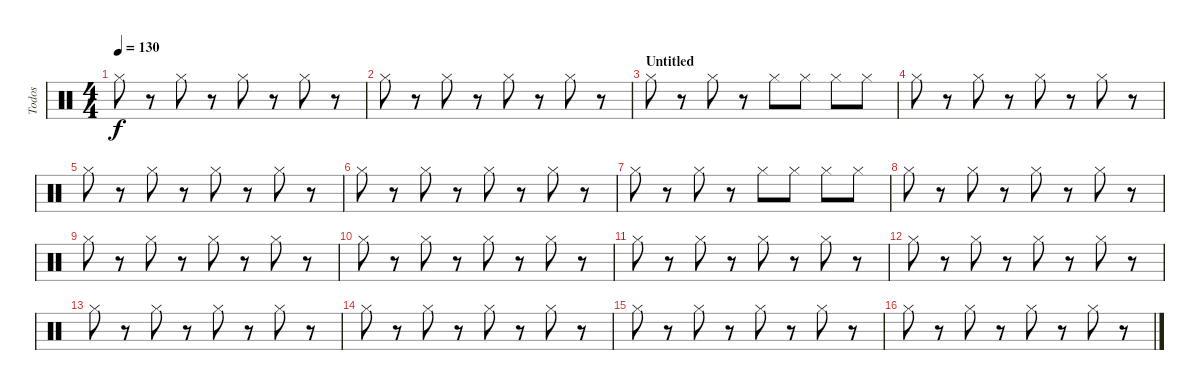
\track ("Todos" "Todos") {instrument percussion}
\staff {score}
\articulation defaults
\ts (4 4)
\tempo 130
\clef neutral
\ks c "Hi-Hat (closed)".8{dy f}
r.8 "Hi-Hat (closed)".8 r.8 "Hi-Hat (closed)".8 r.8 "Hi-Hat (closed)".8 r.8 |
"Hi-Hat (closed)".8 r.8 "Hi-Hat (closed)".8 r.8 "Hi-Hat (closed)".8 r.8 "Hi-Hat (closed)".8 r.8 |
\section ("" "Untitled")
"Hi-Hat (closed)".8 r.8 "Hi-Hat (closed)".8 r.8 "Hi-Hat (closed)".8 "Hi-Hat (closed)".8 "Hi-Hat (closed)".8 "Hi-Hat (closed)".8 |
"Hi-Hat (closed)".8 r.8 "Hi-Hat (closed)".8 r.8 "Hi-Hat (closed)".8 r.8 "Hi-Hat (closed)".8 r.8 |
"Hi-Hat (closed)".8 r.8 "Hi-Hat (closed)".8 r.8 "Hi-Hat (closed)".8 r.8 "Hi-Hat (closed)".8 r.8 |
"Hi-Hat (closed)".8 r.8 "Hi-Hat (closed)".8 r.8 "Hi-Hat (closed)".8 r.8 "Hi-Hat (closed)".8 r.8 |
"Hi-Hat (closed)".8 r.8 "Hi-Hat (closed)".8 r.8 "Hi-Hat (closed)".8 "Hi-Hat (closed)".8 "Hi-Hat (closed)".8 "Hi-Hat (closed)".8 |
"Hi-Hat (closed)".8 r.8 "Hi-Hat (closed)".8 r.8 "Hi-Hat (closed)".8 r.8 "Hi-Hat (closed)".8 r.8 |
"Hi-Hat (closed)".8 r.8 "Hi-Hat (closed)".8 r.8 "Hi-Hat (closed)".8 r.8 "Hi-Hat (closed)".8 r.8 |
"Hi-Hat (closed)".8 r.8 "Hi-Hat (closed)".8 r.8 "Hi-Hat (closed)".8 r.8 "Hi-Hat (closed)".8 r.8 |
"Hi-Hat (closed)".8 r.8 "Hi-Hat (closed)".8 r.8 "Hi-Hat (closed)".8 r.8 "Hi-Hat (closed)".8 r.8 |
"Hi-Hat (closed)".8 r.8 "Hi-Hat (closed)".8 r.8 "Hi-Hat (closed)".8 r.8 "Hi-Hat (closed)".8 r.8 |
"Hi-Hat (closed)".8 r.8 "Hi-Hat (closed)".8 r.8 "Hi-Hat (closed)".8 r.8 "Hi-Hat (closed)".8 r.8 |
"Hi-Hat (closed)".8 r.8 "Hi-Hat (closed)".8 r.8 "Hi-Hat (closed)".8 r.8 "Hi-Hat (closed)".8 r.8 |
"Hi-Hat (closed)".8 r.8 "Hi-Hat (closed)".8 r.8 "Hi-Hat (closed)".8 r.8 "Hi-Hat (closed)".8 r.8 |
"Hi-Hat (closed)".8 r.8 "Hi-Hat (closed)".8 r.8 "Hi-Hat (closed)".8 r.8 "Hi-Hat (closed)".8 r.8
